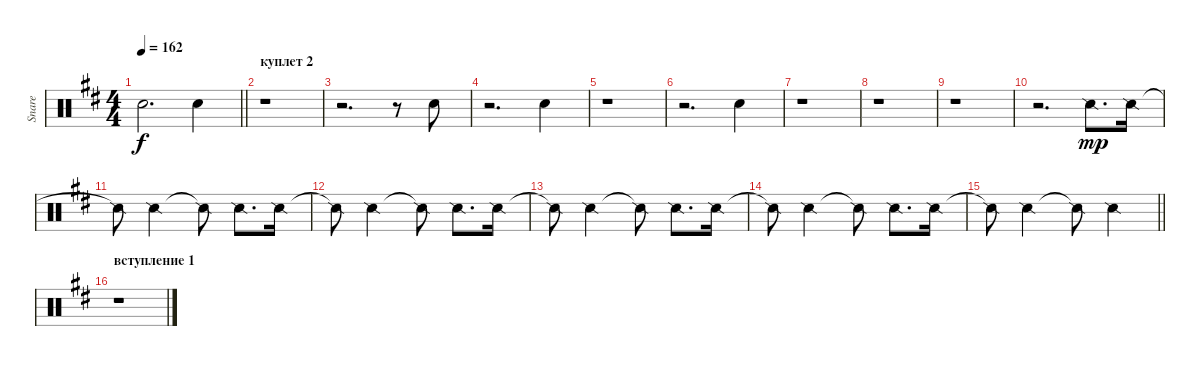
\track ("Snare" "Snare") {instrument percussion}
\staff {score}
\articulation defaults
\ts (4 4)
\tempo 162
\clef neutral
\barLineRight lightlight
\ks bminor "Electric Snare (hit)"{t}.2{d dy f} "Electric Snare (hit)".4
|
\section ("" "куплет 2")
r.1 |
r.2{d} r.8 "Electric Snare (hit)".8 |
r.2{d} "Electric Snare (hit)".4 |
r.1 |
r.2{d} "Electric Snare (hit)".4 |
r.1 |
r.1 |
r.1 |
r.2{d} "Snare (side stick) 2".8{d dy mp} "Snare (side stick) 2".16 |
"Snare (side stick) 2"{t}.8 "Snare (side stick) 2".2 "Snare (side stick) 2"{t}.8 "Snare (side stick) 2".8{d} "Snare (side stick) 2".16 |
"Snare (side stick) 2"{t}.8 "Snare (side stick) 2".2 "Snare (side stick) 2"{t}.8 "Snare (side stick) 2".8{d} "Snare (side stick) 2".16 |
"Snare (side stick) 2"{t}.8 "Snare (side stick) 2".2 "Snare (side stick) 2"{t}.8 "Snare (side stick) 2".8{d} "Snare (side stick) 2".16 |
"Snare (side stick) 2"{t}.8 "Snare (side stick) 2".2 "Snare (side stick) 2"{t}.8 "Snare (side stick) 2".8{d} "Snare (side stick) 2".16 |
\barLineRight lightlight "Snare (side stick) 2"{t}.8 "Snare (side stick) 2".2 "Snare (side stick) 2"{t}.8 "Snare (side stick) 2".4
|
\section ("" "вступление 1")
r.1
